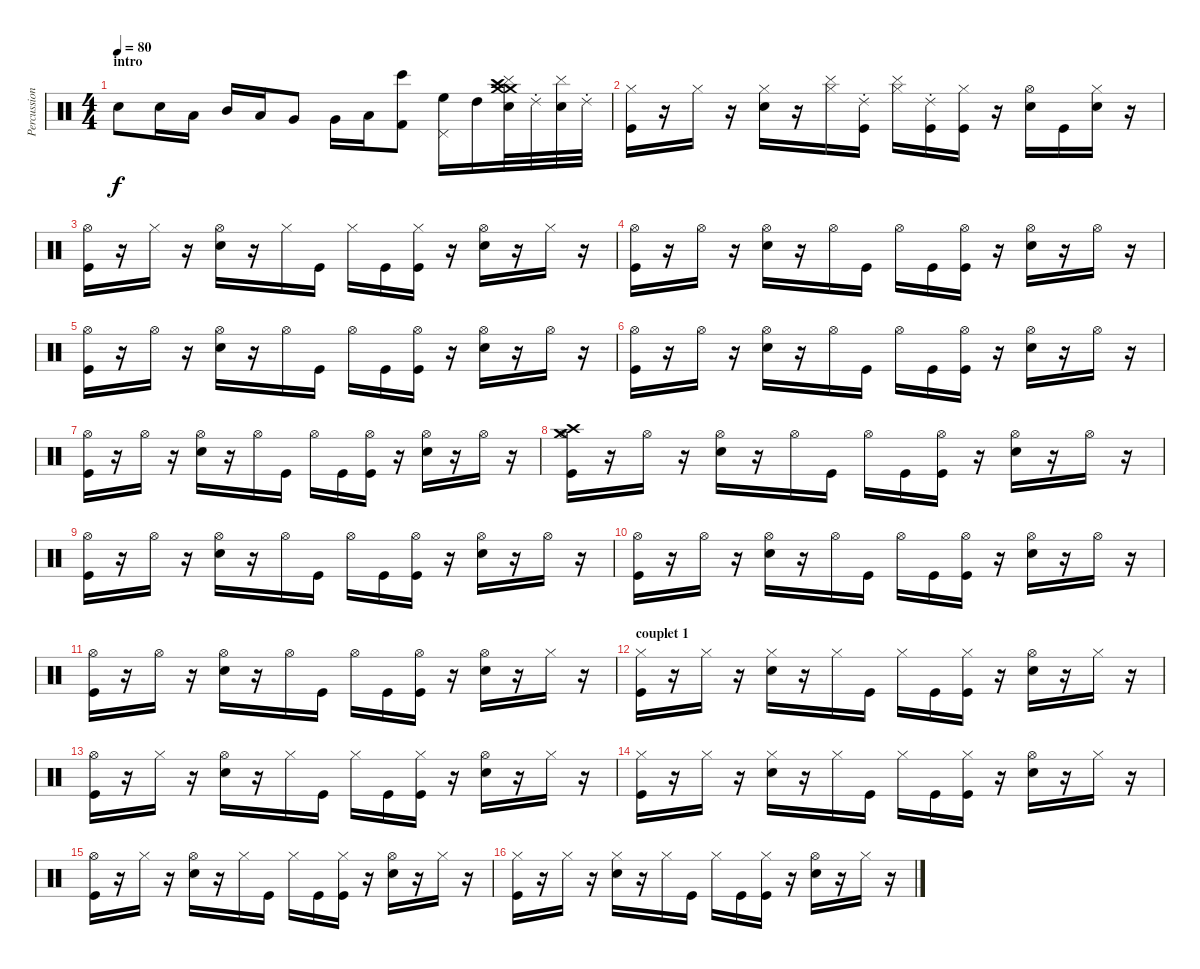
\track ("Percussions" "Percussion") {instrument percussion}
\staff {score}
\articulation defaults
\ts (4 4)
\section ("" "intro")
\tempo 80
\clef neutral
\ks c "Electric Snare (hit)".8{dy f} "Snare (hit) 2".16 "Low Tom (hit)".16 "Mid Tom (hit)".16 "Low Tom (hit)".16 "Very Low Tom (hit)".8 "Very Low Tom (hit)".16 "Low Floor Tom (hit)".16
("Bongo High (hit)" "Kick (hit) 2").8 ("Pedal Hi-Hat (hit)" "High Floor Tom (hit)").16 "High Tom (hit)".16 ("Crash high (hit)" "Crash medium (hit)" "Crash medium (hit)" "Electric Snare (hit)" "Cymbal (hit)").32 "Ride (choke) 2".32 ("Electric Snare (hit)" "Cymbal (hit)").32 "Ride (choke) 2".32 |
("Hi-Hat (closed)" "Kick (hit)").16 r.16 "Hi-Hat (closed)".16 r.16 ("Hi-Hat (closed)" "Electric Snare (hit)").16 r.16 ("Hi-Hat (closed)" "Cymbal (hit)").16 ("Ride (choke) 2" "Kick (hit)").16 ("Hi-Hat (closed)" "Cymbal (hit)").16 ("Ride (choke) 2" "Kick (hit)").16 ("Hi-Hat (closed)" "Kick (hit)").16 r.16 ("Hi-Hat (open)" "Electric Snare (hit)").16 "Kick (hit)".16 ("Hi-Hat (closed)" "Electric Snare (hit)").16 r.16 |
("Hi-Hat (open)" "Kick (hit)").16 r.16 "Hi-Hat (closed)".16 r.16 ("Hi-Hat (open)" "Electric Snare (hit)").16 r.16 "Hi-Hat (closed)".16 "Kick (hit)".16 "Hi-Hat (closed)".16 "Kick (hit)".16 ("Hi-Hat (closed)" "Kick (hit)").16 r.16 ("Hi-Hat (open)" "Electric Snare (hit)").16 r.16 "Hi-Hat (closed)".16 r.16 |
("Hi-Hat (open)" "Kick (hit)").16 r.16 "Hi-Hat (open)".16 r.16 ("Hi-Hat (open)" "Electric Snare (hit)").16 r.16 "Hi-Hat (open)".16 "Kick (hit)".16 "Hi-Hat (open)".16 "Kick (hit)".16 ("Hi-Hat (open)" "Kick (hit)").16 r.16 ("Hi-Hat (open)" "Electric Snare (hit)").16 r.16 "Hi-Hat (open)".16 r.16 |
("Hi-Hat (open)" "Kick (hit)").16 r.16 "Hi-Hat (open)".16 r.16 ("Hi-Hat (open)" "Electric Snare (hit)").16 r.16 "Hi-Hat (open)".16 "Kick (hit)".16 "Hi-Hat (open)".16 "Kick (hit)".16 ("Hi-Hat (open)" "Kick (hit)").16 r.16 ("Hi-Hat (open)" "Electric Snare (hit)").16 r.16 "Hi-Hat (open)".16 r.16 |
("Hi-Hat (open)" "Kick (hit)").16 r.16 "Hi-Hat (open)".16 r.16 ("Hi-Hat (open)" "Electric Snare (hit)").16 r.16 "Hi-Hat (open)".16 "Kick (hit)".16 "Hi-Hat (open)".16 "Kick (hit)".16 ("Hi-Hat (open)" "Kick (hit)").16 r.16 ("Hi-Hat (open)" "Electric Snare (hit)").16 r.16 "Hi-Hat (open)".16 r.16 |
("Hi-Hat (open)" "Kick (hit)").16 r.16 "Hi-Hat (open)".16 r.16 ("Hi-Hat (open)" "Electric Snare (hit)").16 r.16 "Hi-Hat (open)".16 "Kick (hit)".16 "Hi-Hat (open)".16 "Kick (hit)".16 ("Hi-Hat (open)" "Kick (hit)").16 r.16 ("Hi-Hat (open)" "Electric Snare (hit)").16 r.16 "Hi-Hat (open)".16 r.16 |
("Hi-Hat (open)" "Crash high (hit)" "Crash medium (hit)" "Kick (hit)").16 r.16 "Hi-Hat (open)".16 r.16 ("Hi-Hat (open)" "Electric Snare (hit)").16 r.16 "Hi-Hat (open)".16 "Kick (hit)".16 "Hi-Hat (open)".16 "Kick (hit)".16 ("Hi-Hat (open)" "Kick (hit)").16 r.16 ("Hi-Hat (open)" "Electric Snare (hit)").16 r.16 "Hi-Hat (open)".16 r.16 |
("Hi-Hat (open)" "Kick (hit)").16 r.16 "Hi-Hat (open)".16 r.16 ("Hi-Hat (open)" "Electric Snare (hit)").16 r.16 "Hi-Hat (open)".16 "Kick (hit)".16 "Hi-Hat (open)".16 "Kick (hit)".16 ("Hi-Hat (open)" "Kick (hit)").16 r.16 ("Hi-Hat (open)" "Electric Snare (hit)").16 r.16 "Hi-Hat (open)".16 r.16 |
("Hi-Hat (open)" "Kick (hit)").16 r.16 "Hi-Hat (open)".16 r.16 ("Hi-Hat (open)" "Electric Snare (hit)").16 r.16 "Hi-Hat (open)".16 "Kick (hit)".16 "Hi-Hat (open)".16 "Kick (hit)".16 ("Hi-Hat (open)" "Kick (hit)").16 r.16 ("Hi-Hat (open)" "Electric Snare (hit)").16 r.16 "Hi-Hat (open)".16 r.16 |
("Hi-Hat (open)" "Kick (hit)").16 r.16 "Hi-Hat (open)".16 r.16 ("Hi-Hat (open)" "Electric Snare (hit)").16 r.16 "Hi-Hat (open)".16 "Kick (hit)".16 "Hi-Hat (open)".16 "Kick (hit)".16 ("Hi-Hat (open)" "Kick (hit)").16 r.16 ("Hi-Hat (open)" "Electric Snare (hit)").16 r.16 "Hi-Hat (closed)".16 r.16 |
\section ("" "couplet 1")
("Hi-Hat (closed)" "Kick (hit)").16 r.16 "Hi-Hat (closed)".16 r.16 ("Hi-Hat (closed)" "Electric Snare (hit)").16 r.16 "Hi-Hat (closed)".16 "Kick (hit)".16 "Hi-Hat (closed)".16 "Kick (hit)".16 ("Hi-Hat (closed)" "Kick (hit)").16 r.16 ("Hi-Hat (open)" "Electric Snare (hit)").16 r.16 "Hi-Hat (closed)".16 r.16 |
("Hi-Hat (open)" "Kick (hit)").16 r.16 "Hi-Hat (closed)".16 r.16 ("Hi-Hat (open)" "Electric Snare (hit)").16 r.16 "Hi-Hat (closed)".16 "Kick (hit)".16 "Hi-Hat (closed)".16 "Kick (hit)".16 ("Hi-Hat (closed)" "Kick (hit)").16 r.16 ("Hi-Hat (open)" "Electric Snare (hit)").16 r.16 "Hi-Hat (closed)".16 r.16 |
("Hi-Hat (closed)" "Kick (hit)").16 r.16 "Hi-Hat (closed)".16 r.16 ("Hi-Hat (closed)" "Electric Snare (hit)").16 r.16 "Hi-Hat (closed)".16 "Kick (hit)".16 "Hi-Hat (closed)".16 "Kick (hit)".16 ("Hi-Hat (closed)" "Kick (hit)").16 r.16 ("Hi-Hat (open)" "Electric Snare (hit)").16 r.16 "Hi-Hat (closed)".16 r.16 |
("Hi-Hat (open)" "Kick (hit)").16 r.16 "Hi-Hat (closed)".16 r.16 ("Hi-Hat (open)" "Electric Snare (hit)").16 r.16 "Hi-Hat (closed)".16 "Kick (hit)".16 "Hi-Hat (closed)".16 "Kick (hit)".16 ("Hi-Hat (closed)" "Kick (hit)").16 r.16 ("Hi-Hat (open)" "Electric Snare (hit)").16 r.16 "Hi-Hat (closed)".16 r.16 |
("Hi-Hat (closed)" "Kick (hit)").16 r.16 "Hi-Hat (closed)".16 r.16 ("Hi-Hat (closed)" "Electric Snare (hit)").16 r.16 "Hi-Hat (closed)".16 "Kick (hit)".16 "Hi-Hat (closed)".16 "Kick (hit)".16 ("Hi-Hat (closed)" "Kick (hit)").16 r.16 ("Hi-Hat (open)" "Electric Snare (hit)").16 r.16 "Hi-Hat (closed)".16 r.16
